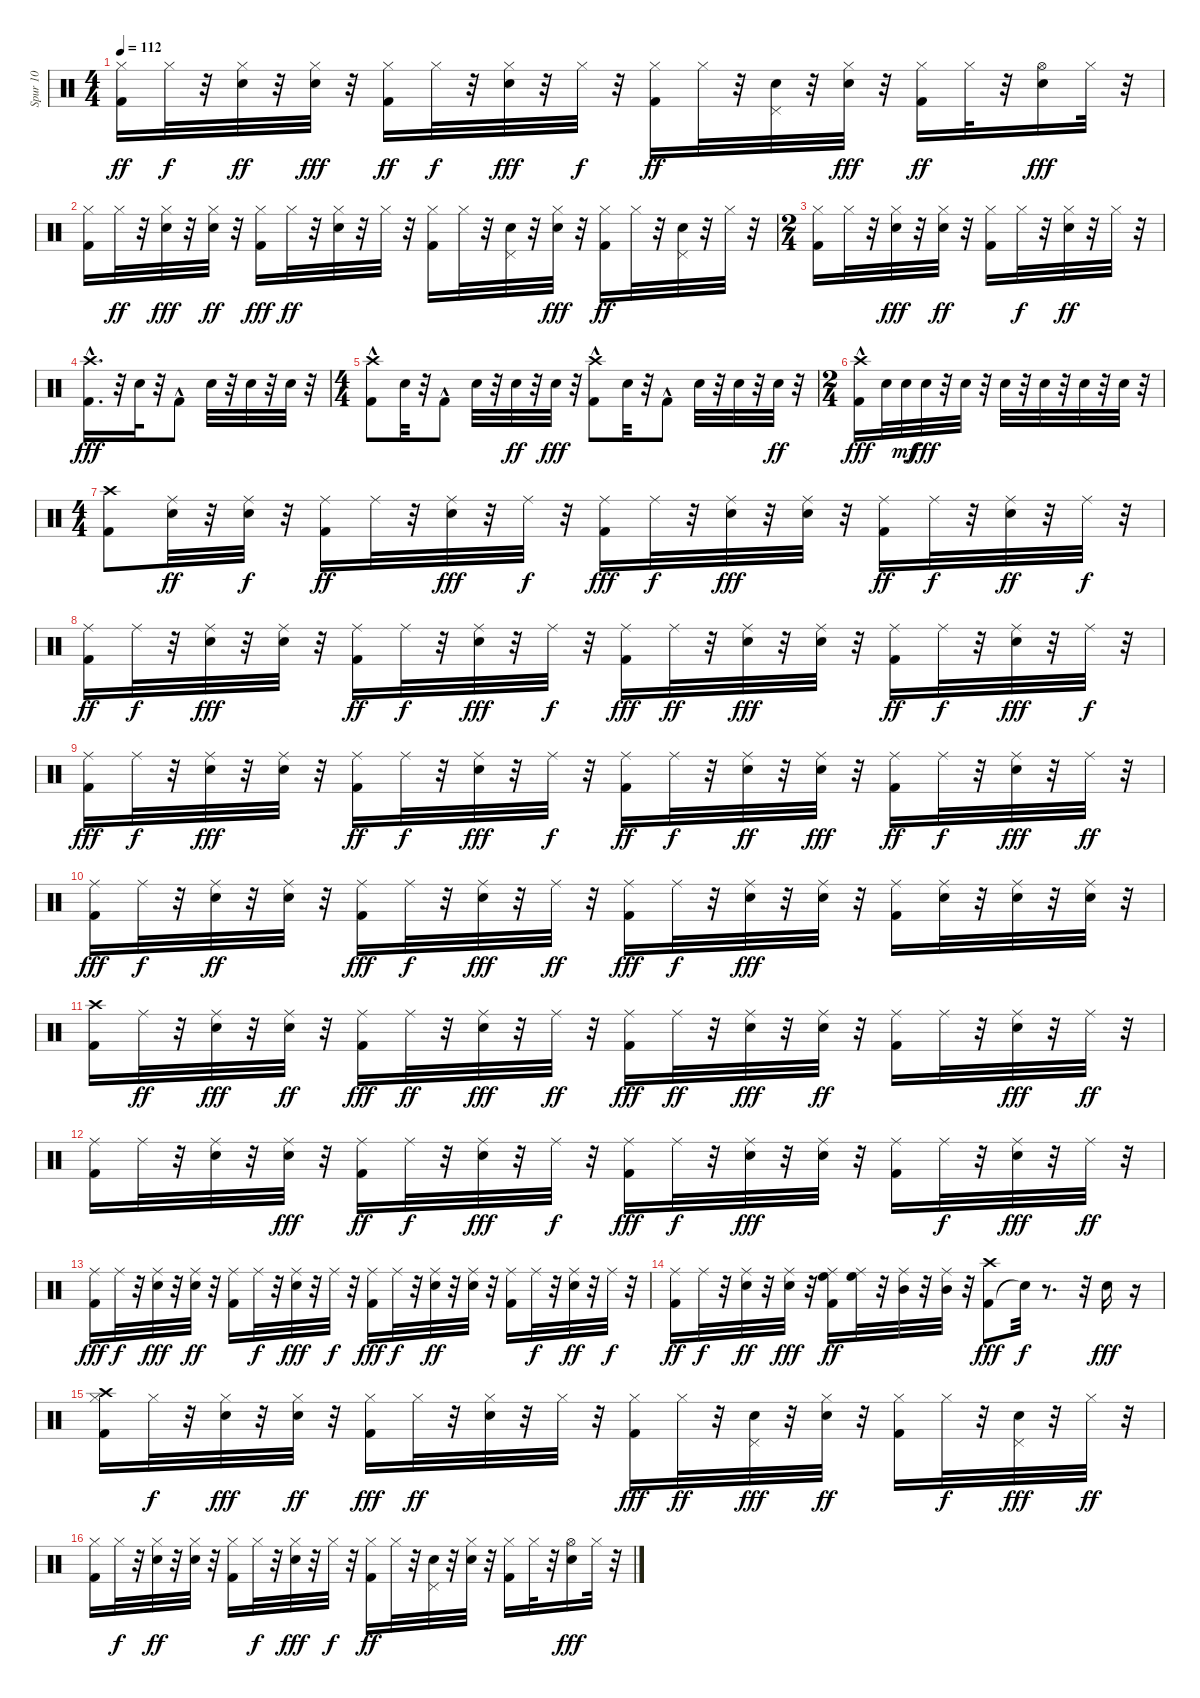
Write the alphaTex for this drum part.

\track ("Spur 10" "Spur 10") {instrument percussion}
\staff {score}
\articulation defaults
\ts (4 4)
\tempo 112
\clef neutral
\ks c
("Kick (hit) 2" "Hi-Hat (closed)").16{dy ff} "Hi-Hat (closed)".32{dy f} r.32 ("Electric Snare (hit)" "Hi-Hat (closed)").32{dy ff} r.32 ("Electric Snare (hit)" "Hi-Hat (closed)").32{dy fff} r.32 ("Kick (hit) 2" "Hi-Hat (closed)").16{dy ff} "Hi-Hat (closed)".32{dy f} r.32 ("Electric Snare (hit)" "Hi-Hat (closed)").32{dy fff} r.32 "Hi-Hat (closed)".32{dy f} r.32 ("Kick (hit) 2" "Hi-Hat (closed)").16{dy ff} "Hi-Hat (closed)".32 r.32 ("Electric Snare (hit)" "Pedal Hi-Hat (hit)").32 r.32 ("Electric Snare (hit)" "Hi-Hat (closed)").32{dy fff} r.32 ("Kick (hit) 2" "Hi-Hat (closed)").16{dy ff} "Hi-Hat (closed)".32 r.32 ("Electric Snare (hit)" "Hi-Hat (open)").16{dy fff} "Hi-Hat (closed)".32 r.32 |
("Kick (hit) 2" "Hi-Hat (closed)").16 "Hi-Hat (closed)".32{dy ff} r.32 ("Electric Snare (hit)" "Hi-Hat (closed)").32{dy fff} r.32 ("Electric Snare (hit)" "Hi-Hat (closed)").32{dy ff} r.32 ("Kick (hit) 2" "Hi-Hat (closed)").16{dy fff} "Hi-Hat (closed)".32{dy ff} r.32 ("Electric Snare (hit)" "Hi-Hat (closed)").32 r.32 "Hi-Hat (closed)".32 r.32 ("Kick (hit) 2" "Hi-Hat (closed)").16 "Hi-Hat (closed)".32 r.32 ("Electric Snare (hit)" "Pedal Hi-Hat (hit)").32 r.32 ("Electric Snare (hit)" "Hi-Hat (closed)").32{dy fff} r.32 ("Kick (hit) 2" "Hi-Hat (closed)").16{dy ff} "Hi-Hat (closed)".32 r.32 ("Electric Snare (hit)" "Pedal Hi-Hat (hit)").32 r.32 "Hi-Hat (closed)".32 r.32 |
\ts (2 4)
("Kick (hit) 2" "Hi-Hat (closed)").16 "Hi-Hat (closed)".32 r.32 ("Electric Snare (hit)" "Hi-Hat (closed)").32{dy fff} r.32 ("Electric Snare (hit)" "Hi-Hat (closed)").32{dy ff} r.32 ("Kick (hit) 2" "Hi-Hat (closed)").16 "Hi-Hat (closed)".32{dy f} r.32 ("Electric Snare (hit)" "Hi-Hat (closed)").32{dy ff} r.32 "Hi-Hat (closed)".32 r.32 |
("Kick (hit) 2" "Crash high (hit)"{hac}).16{d dy fff} r.32 "Electric Snare (hit)".32 r.32 "Kick (hit) 2"{hac}.8 "Electric Snare (hit)".32 r.32 "Electric Snare (hit)".32 r.32 "Electric Snare (hit)".32 r.32 |
\ts (4 4)
("Kick (hit) 2" "Crash high (hit)"{hac}).8 "Electric Snare (hit)".32 r.32 "Kick (hit) 2"{hac}.8 "Electric Snare (hit)".32 r.32 "Electric Snare (hit)".32{dy ff} r.32 "Electric Snare (hit)".32{dy fff} r.32 ("Kick (hit) 2" "Crash high (hit)"{hac}).8 "Electric Snare (hit)".32 r.32 "Kick (hit) 2"{hac}.8 "Electric Snare (hit)".32 r.32 "Electric Snare (hit)".32 r.32 "Electric Snare (hit)".32{dy ff} r.32 |
\ts (2 4)
("Kick (hit) 2" "Crash high (hit)"{hac}).16{dy fff} "Electric Snare (hit)".32 "Electric Snare (hit)".32{dy mf} "Electric Snare (hit)".32{dy fff} r.32 "Electric Snare (hit)".32 r.32 "Electric Snare (hit)".32 r.32 "Electric Snare (hit)".32 r.32 "Electric Snare (hit)".32 r.32 "Electric Snare (hit)".32 r.32 |
\ts (4 4)
("Kick (hit) 2" "Crash high (hit)").8 ("Electric Snare (hit)" "Ride (middle)").32{dy ff} r.32 ("Electric Snare (hit)" "Ride (middle)").32{dy f} r.32 ("Kick (hit) 2" "Ride (middle)").16{dy ff} "Ride (middle)".32 r.32 ("Electric Snare (hit)" "Ride (middle)").32{dy fff} r.32 "Ride (middle)".32{dy f} r.32 ("Kick (hit) 2" "Ride (middle)").16{dy fff} "Ride (middle)".32{dy f} r.32 ("Electric Snare (hit)" "Ride (middle)").32{dy fff} r.32 ("Electric Snare (hit)" "Ride (middle)").32 r.32 ("Kick (hit) 2" "Ride (middle)").16{dy ff} "Ride (middle)".32{dy f} r.32 ("Electric Snare (hit)" "Ride (middle)").32{dy ff} r.32 "Ride (middle)".32{dy f} r.32 |
("Kick (hit) 2" "Ride (middle)").16{dy ff} "Ride (middle)".32{dy f} r.32 ("Electric Snare (hit)" "Ride (middle)").32{dy fff} r.32 ("Electric Snare (hit)" "Ride (middle)").32 r.32 ("Kick (hit) 2" "Ride (middle)").16{dy ff} "Ride (middle)".32{dy f} r.32 ("Electric Snare (hit)" "Ride (middle)").32{dy fff} r.32 "Ride (middle)".32{dy f} r.32 ("Kick (hit) 2" "Ride (middle)").16{dy fff} "Ride (middle)".32{dy ff} r.32 ("Electric Snare (hit)" "Ride (middle)").32{dy fff} r.32 ("Electric Snare (hit)" "Ride (middle)").32 r.32 ("Kick (hit) 2" "Ride (middle)").16{dy ff} "Ride (middle)".32{dy f} r.32 ("Electric Snare (hit)" "Ride (middle)").32{dy fff} r.32 "Ride (middle)".32{dy f} r.32 |
("Kick (hit) 2" "Ride (middle)").16{dy fff} "Ride (middle)".32{dy f} r.32 ("Electric Snare (hit)" "Ride (middle)").32{dy fff} r.32 ("Electric Snare (hit)" "Ride (middle)").32 r.32 ("Kick (hit) 2" "Ride (middle)").16{dy ff} "Ride (middle)".32{dy f} r.32 ("Electric Snare (hit)" "Ride (middle)").32{dy fff} r.32 "Ride (middle)".32{dy f} r.32 ("Kick (hit) 2" "Ride (middle)").16{dy ff} "Ride (middle)".32{dy f} r.32 ("Electric Snare (hit)" "Ride (middle)").32{dy ff} r.32 ("Electric Snare (hit)" "Ride (middle)").32{dy fff} r.32 ("Kick (hit) 2" "Ride (middle)").16{dy ff} "Ride (middle)".32{dy f} r.32 ("Electric Snare (hit)" "Ride (middle)").32{dy fff} r.32 "Ride (middle)".32{dy ff} r.32 |
("Kick (hit) 2" "Ride (middle)").16{dy fff} "Ride (middle)".32{dy f} r.32 ("Electric Snare (hit)" "Ride (middle)").32{dy ff} r.32 ("Electric Snare (hit)" "Ride (middle)").32 r.32 ("Kick (hit) 2" "Ride (middle)").16{dy fff} "Ride (middle)".32{dy f} r.32 ("Electric Snare (hit)" "Ride (middle)").32{dy fff} r.32 "Ride (middle)".32{dy ff} r.32 ("Kick (hit) 2" "Ride (middle)").16{dy fff} "Ride (middle)".32{dy f} r.32 ("Electric Snare (hit)" "Ride (middle)").32{dy fff} r.32 ("Electric Snare (hit)" "Ride (middle)").32 r.32 ("Kick (hit) 2" "Ride (middle)").16 ("Electric Snare (hit)" "Ride (middle)").32 r.32 ("Electric Snare (hit)" "Ride (middle)").32 r.32 ("Electric Snare (hit)" "Ride (middle)").32 r.32 |
("Kick (hit) 2" "Crash high (hit)").16 "Ride (middle)".32{dy ff} r.32 ("Electric Snare (hit)" "Ride (middle)").32{dy fff} r.32 ("Electric Snare (hit)" "Ride (middle)").32{dy ff} r.32 ("Kick (hit) 2" "Ride (middle)").16{dy fff} "Ride (middle)".32{dy ff} r.32 ("Electric Snare (hit)" "Ride (middle)").32{dy fff} r.32 "Ride (middle)".32{dy ff} r.32 ("Kick (hit) 2" "Ride (middle)").16{dy fff} "Ride (middle)".32{dy ff} r.32 ("Electric Snare (hit)" "Ride (middle)").32{dy fff} r.32 ("Electric Snare (hit)" "Ride (middle)").32{dy ff} r.32 ("Kick (hit) 2" "Ride (middle)").16 "Ride (middle)".32 r.32 ("Electric Snare (hit)" "Ride (middle)").32{dy fff} r.32 "Ride (middle)".32{dy ff} r.32 |
("Kick (hit) 2" "Ride (middle)").16 "Ride (middle)".32 r.32 ("Electric Snare (hit)" "Ride (middle)").32 r.32 ("Electric Snare (hit)" "Ride (middle)").32{dy fff} r.32 ("Kick (hit) 2" "Ride (middle)").16{dy ff} "Ride (middle)".32{dy f} r.32 ("Electric Snare (hit)" "Ride (middle)").32{dy fff} r.32 "Ride (middle)".32{dy f} r.32 ("Kick (hit) 2" "Ride (middle)").16{dy fff} "Ride (middle)".32{dy f} r.32 ("Electric Snare (hit)" "Ride (middle)").32{dy fff} r.32 ("Electric Snare (hit)" "Ride (middle)").32 r.32 ("Kick (hit) 2" "Ride (middle)").16 "Ride (middle)".32{dy f} r.32 ("Electric Snare (hit)" "Ride (middle)").32{dy fff} r.32 "Ride (middle)".32{dy ff} r.32 |
("Kick (hit) 2" "Ride (middle)").16{dy fff} "Ride (middle)".32{dy f} r.32 ("Electric Snare (hit)" "Ride (middle)").32{dy fff} r.32 ("Electric Snare (hit)" "Ride (middle)").32{dy ff} r.32 ("Kick (hit) 2" "Ride (middle)").16 "Ride (middle)".32{dy f} r.32 ("Electric Snare (hit)" "Ride (middle)").32{dy fff} r.32 "Ride (middle)".32{dy f} r.32 ("Kick (hit) 2" "Ride (middle)").16{dy fff} "Ride (middle)".32{dy f} r.32 ("Electric Snare (hit)" "Ride (middle)").32{dy ff} r.32 ("Electric Snare (hit)" "Ride (middle)").32 r.32 ("Kick (hit) 2" "Ride (middle)").16 "Ride (middle)".32{dy f} r.32 ("Electric Snare (hit)" "Ride (middle)").32{dy ff} r.32 "Ride (middle)".32{dy f} r.32 |
("Kick (hit) 2" "Ride (middle)").16{dy ff} "Ride (middle)".32{dy f} r.32 ("Electric Snare (hit)" "Ride (middle)").32{dy ff} r.32 ("Electric Snare (hit)" "Ride (middle)").32{dy fff} r.32 ("Kick (hit) 2" "High Floor Tom (hit)" "Ride (middle)").16{dy ff} ("High Floor Tom (hit)" "Ride (middle)").32 r.32 ("Mid Tom (hit)" "Ride (middle)").32 r.32 ("Mid Tom (hit)" "Ride (middle)").32 r.32 ("Kick (hit) 2" "Crash high (hit)").8{dy fff} "Snare (hit)"{t}.32{dy f} r.8{d} r.32 "Electric Snare (hit)".16{dy fff} r.16 |
("Kick (hit) 2" "Hi-Hat (closed)" "Crash high (hit)").16 "Hi-Hat (closed)".32{dy f} r.32 ("Electric Snare (hit)" "Hi-Hat (closed)").32{dy fff} r.32 ("Electric Snare (hit)" "Hi-Hat (closed)").32{dy ff} r.32 ("Kick (hit) 2" "Hi-Hat (closed)").16{dy fff} "Hi-Hat (closed)".32{dy ff} r.32 ("Electric Snare (hit)" "Hi-Hat (closed)").32 r.32 "Hi-Hat (closed)".32 r.32 ("Kick (hit) 2" "Hi-Hat (closed)").16{dy fff} "Hi-Hat (closed)".32{dy ff} r.32 ("Electric Snare (hit)" "Pedal Hi-Hat (hit)").32{dy fff} r.32 ("Electric Snare (hit)" "Hi-Hat (closed)").32{dy ff} r.32 ("Kick (hit) 2" "Hi-Hat (closed)").16 "Hi-Hat (closed)".32{dy f} r.32 ("Electric Snare (hit)" "Pedal Hi-Hat (hit)").32{dy fff} r.32 "Hi-Hat (closed)".32{dy ff} r.32 |
("Kick (hit) 2" "Hi-Hat (closed)").16 "Hi-Hat (closed)".32{dy f} r.32 ("Electric Snare (hit)" "Hi-Hat (closed)").32{dy ff} r.32 ("Electric Snare (hit)" "Hi-Hat (closed)").32 r.32 ("Kick (hit) 2" "Hi-Hat (closed)").16 "Hi-Hat (closed)".32{dy f} r.32 ("Electric Snare (hit)" "Hi-Hat (closed)").32{dy fff} r.32 "Hi-Hat (closed)".32{dy f} r.32 ("Kick (hit) 2" "Hi-Hat (closed)").16{dy ff} "Hi-Hat (closed)".32 r.32 ("Electric Snare (hit)" "Pedal Hi-Hat (hit)").32 r.32 ("Electric Snare (hit)" "Hi-Hat (closed)").32 r.32 ("Kick (hit) 2" "Hi-Hat (closed)").16 "Hi-Hat (closed)".32 r.32 ("Electric Snare (hit)" "Hi-Hat (open)").16{dy fff} "Hi-Hat (closed)".32 r.32
